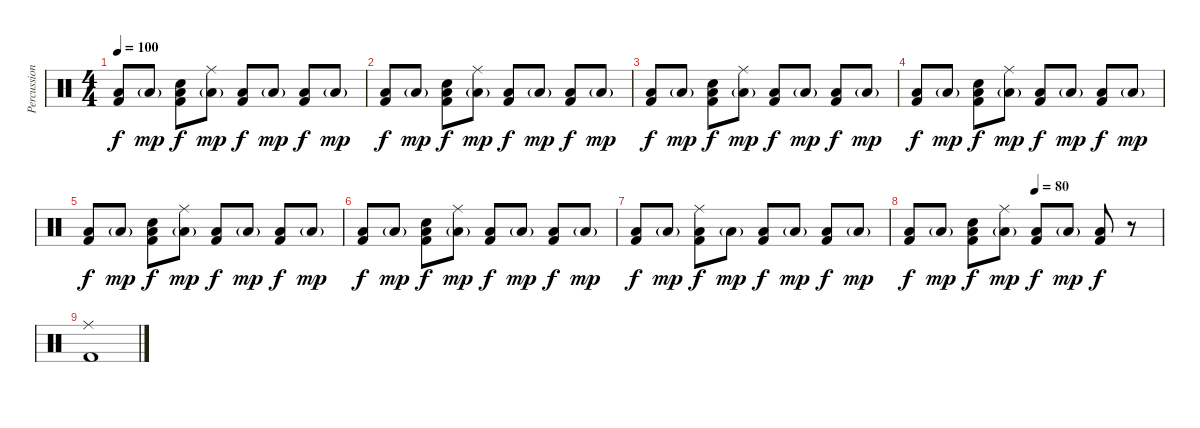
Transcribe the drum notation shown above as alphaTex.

\track ("Percussion" "Percussion") {instrument percussion}
\staff {score}
\articulation defaults
\ts (4 4)
\tempo 100
\clef neutral
\ks c
("Low Floor Tom (hit)" "Kick (hit) 2").8{dy f} "Low Floor Tom (hit)"{g}.8{dy mp} ("Snare (hit) 2" "Low Floor Tom (hit)" "Kick (hit) 2").8{dy f} ("Ride (middle)" "Low Floor Tom (hit)"{g}).8{dy mp} ("Low Floor Tom (hit)" "Kick (hit) 2").8{dy f} "Low Floor Tom (hit)"{g}.8{dy mp} ("Low Floor Tom (hit)" "Kick (hit) 2").8{dy f} "Low Floor Tom (hit)"{g}.8{dy mp} |
("Low Floor Tom (hit)" "Kick (hit) 2").8{dy f} "Low Floor Tom (hit)"{g}.8{dy mp} ("Snare (hit) 2" "Low Floor Tom (hit)" "Kick (hit) 2").8{dy f} ("Ride (middle)" "Low Floor Tom (hit)"{g}).8{dy mp} ("Low Floor Tom (hit)" "Kick (hit) 2").8{dy f} "Low Floor Tom (hit)"{g}.8{dy mp} ("Low Floor Tom (hit)" "Kick (hit) 2").8{dy f} "Low Floor Tom (hit)"{g}.8{dy mp} |
("Low Floor Tom (hit)" "Kick (hit) 2").8{dy f} "Low Floor Tom (hit)"{g}.8{dy mp} ("Snare (hit) 2" "Low Floor Tom (hit)" "Kick (hit) 2").8{dy f} ("Ride (middle)" "Low Floor Tom (hit)"{g}).8{dy mp} ("Low Floor Tom (hit)" "Kick (hit) 2").8{dy f} "Low Floor Tom (hit)"{g}.8{dy mp} ("Low Floor Tom (hit)" "Kick (hit) 2").8{dy f} "Low Floor Tom (hit)"{g}.8{dy mp} |
("Low Floor Tom (hit)" "Kick (hit) 2").8{dy f} "Low Floor Tom (hit)"{g}.8{dy mp} ("Snare (hit) 2" "Low Floor Tom (hit)" "Kick (hit) 2").8{dy f} ("Ride (middle)" "Low Floor Tom (hit)"{g}).8{dy mp} ("Low Floor Tom (hit)" "Kick (hit) 2").8{dy f} "Low Floor Tom (hit)"{g}.8{dy mp} ("Low Floor Tom (hit)" "Kick (hit) 2").8{dy f} "Low Floor Tom (hit)"{g}.8{dy mp} |
("Low Floor Tom (hit)" "Kick (hit) 2").8{dy f} "Low Floor Tom (hit)"{g}.8{dy mp} ("Snare (hit) 2" "Low Floor Tom (hit)" "Kick (hit) 2").8{dy f} ("Ride (middle)" "Low Floor Tom (hit)"{g}).8{dy mp} ("Low Floor Tom (hit)" "Kick (hit) 2").8{dy f} "Low Floor Tom (hit)"{g}.8{dy mp} ("Low Floor Tom (hit)" "Kick (hit) 2").8{dy f} "Low Floor Tom (hit)"{g}.8{dy mp} |
("Low Floor Tom (hit)" "Kick (hit) 2").8{dy f} "Low Floor Tom (hit)"{g}.8{dy mp} ("Snare (hit) 2" "Low Floor Tom (hit)" "Kick (hit) 2").8{dy f} ("Ride (middle)" "Low Floor Tom (hit)"{g}).8{dy mp} ("Low Floor Tom (hit)" "Kick (hit) 2").8{dy f} "Low Floor Tom (hit)"{g}.8{dy mp} ("Low Floor Tom (hit)" "Kick (hit) 2").8{dy f} "Low Floor Tom (hit)"{g}.8{dy mp} |
("Low Floor Tom (hit)" "Kick (hit) 2").8{dy f} "Low Floor Tom (hit)"{g}.8{dy mp} ("Ride (middle)" "Low Floor Tom (hit)" "Kick (hit) 2").8{dy f} "Low Floor Tom (hit)"{g}.8{dy mp} ("Low Floor Tom (hit)" "Kick (hit) 2").8{dy f} "Low Floor Tom (hit)"{g}.8{dy mp} ("Low Floor Tom (hit)" "Kick (hit) 2").8{dy f} "Low Floor Tom (hit)"{g}.8{dy mp} |
\tempo (80 0.5)
("Low Floor Tom (hit)" "Kick (hit) 2").8{dy f} "Low Floor Tom (hit)"{g}.8{dy mp} ("Snare (hit) 2" "Low Floor Tom (hit)" "Kick (hit) 2").8{dy f} ("Ride (middle)" "Low Floor Tom (hit)"{g}).8{dy mp} ("Low Floor Tom (hit)" "Kick (hit) 2").8{dy f} "Low Floor Tom (hit)"{g}.8{dy mp} ("Low Floor Tom (hit)" "Kick (hit) 2").8{dy f} r.8 |
("Ride (middle)" "Kick (hit) 2").1
